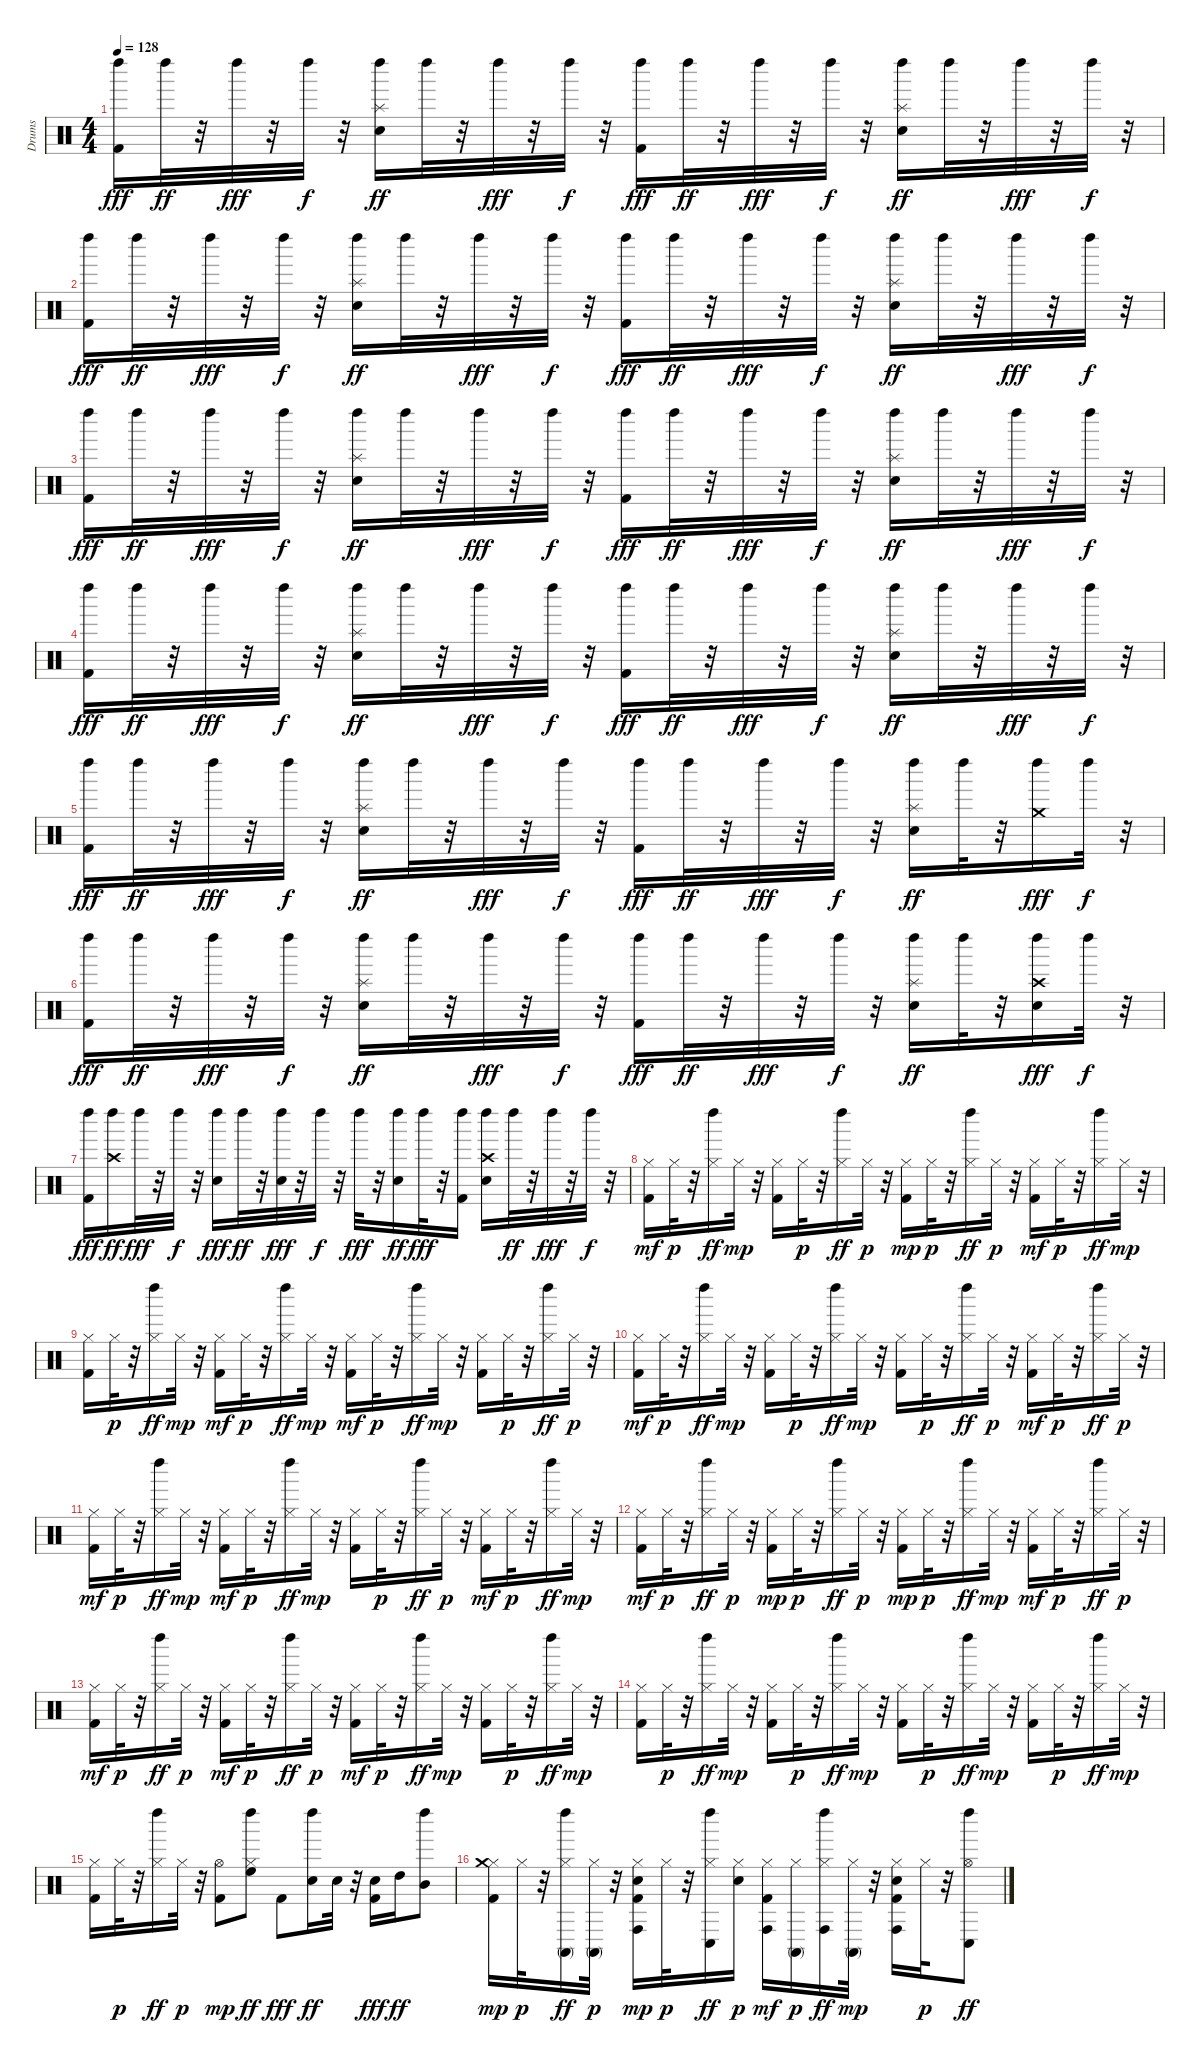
\track ("Drums" "Drums") {instrument percussion}
\staff {score}
\articulation defaults
\ts (4 4)
\tempo 128
\clef neutral
\ks c
("Kick (hit) 2" "Left Maraca (hit)").16{dy fff} "Left Maraca (hit)".32{dy ff} r.32 "Left Maraca (hit)".32{dy fff} r.32 "Left Maraca (hit)".32{dy f} r.32 ("Left Maraca (hit)" "Snare (hit) 2" "Splash (hit)").16{dy ff} "Left Maraca (hit)".32 r.32 "Left Maraca (hit)".32{dy fff} r.32 "Left Maraca (hit)".32{dy f} r.32 ("Kick (hit) 2" "Left Maraca (hit)").16{dy fff} "Left Maraca (hit)".32{dy ff} r.32 "Left Maraca (hit)".32{dy fff} r.32 "Left Maraca (hit)".32{dy f} r.32 ("Left Maraca (hit)" "Snare (hit) 2" "Splash (hit)").16{dy ff} "Left Maraca (hit)".32 r.32 "Left Maraca (hit)".32{dy fff} r.32 "Left Maraca (hit)".32{dy f} r.32 |
("Kick (hit) 2" "Left Maraca (hit)").16{dy fff} "Left Maraca (hit)".32{dy ff} r.32 "Left Maraca (hit)".32{dy fff} r.32 "Left Maraca (hit)".32{dy f} r.32 ("Left Maraca (hit)" "Snare (hit) 2" "Splash (hit)").16{dy ff} "Left Maraca (hit)".32 r.32 "Left Maraca (hit)".32{dy fff} r.32 "Left Maraca (hit)".32{dy f} r.32 ("Kick (hit) 2" "Left Maraca (hit)").16{dy fff} "Left Maraca (hit)".32{dy ff} r.32 "Left Maraca (hit)".32{dy fff} r.32 "Left Maraca (hit)".32{dy f} r.32 ("Left Maraca (hit)" "Snare (hit) 2" "Splash (hit)").16{dy ff} "Left Maraca (hit)".32 r.32 "Left Maraca (hit)".32{dy fff} r.32 "Left Maraca (hit)".32{dy f} r.32 |
("Kick (hit) 2" "Left Maraca (hit)").16{dy fff} "Left Maraca (hit)".32{dy ff} r.32 "Left Maraca (hit)".32{dy fff} r.32 "Left Maraca (hit)".32{dy f} r.32 ("Left Maraca (hit)" "Snare (hit) 2" "Splash (hit)").16{dy ff} "Left Maraca (hit)".32 r.32 "Left Maraca (hit)".32{dy fff} r.32 "Left Maraca (hit)".32{dy f} r.32 ("Kick (hit) 2" "Left Maraca (hit)").16{dy fff} "Left Maraca (hit)".32{dy ff} r.32 "Left Maraca (hit)".32{dy fff} r.32 "Left Maraca (hit)".32{dy f} r.32 ("Left Maraca (hit)" "Snare (hit) 2" "Splash (hit)").16{dy ff} "Left Maraca (hit)".32 r.32 "Left Maraca (hit)".32{dy fff} r.32 "Left Maraca (hit)".32{dy f} r.32 |
("Kick (hit) 2" "Left Maraca (hit)").16{dy fff} "Left Maraca (hit)".32{dy ff} r.32 "Left Maraca (hit)".32{dy fff} r.32 "Left Maraca (hit)".32{dy f} r.32 ("Left Maraca (hit)" "Snare (hit) 2" "Splash (hit)").16{dy ff} "Left Maraca (hit)".32 r.32 "Left Maraca (hit)".32{dy fff} r.32 "Left Maraca (hit)".32{dy f} r.32 ("Kick (hit) 2" "Left Maraca (hit)").16{dy fff} "Left Maraca (hit)".32{dy ff} r.32 "Left Maraca (hit)".32{dy fff} r.32 "Left Maraca (hit)".32{dy f} r.32 ("Left Maraca (hit)" "Snare (hit) 2" "Splash (hit)").16{dy ff} "Left Maraca (hit)".32 r.32 "Left Maraca (hit)".32{dy fff} r.32 "Left Maraca (hit)".32{dy f} r.32 |
("Kick (hit) 2" "Left Maraca (hit)").16{dy fff} "Left Maraca (hit)".32{dy ff} r.32 "Left Maraca (hit)".32{dy fff} r.32 "Left Maraca (hit)".32{dy f} r.32 ("Left Maraca (hit)" "Snare (hit) 2" "Splash (hit)").16{dy ff} "Left Maraca (hit)".32 r.32 "Left Maraca (hit)".32{dy fff} r.32 "Left Maraca (hit)".32{dy f} r.32 ("Kick (hit) 2" "Left Maraca (hit)").16{dy fff} "Left Maraca (hit)".32{dy ff} r.32 "Left Maraca (hit)".32{dy fff} r.32 "Left Maraca (hit)".32{dy f} r.32 ("Left Maraca (hit)" "Snare (hit) 2" "Splash (hit)").16{dy ff} "Left Maraca (hit)".32 r.32 ("Left Maraca (hit)" "Crash medium (hit)").16{dy fff} "Left Maraca (hit)".32{dy f} r.32 |
("Kick (hit) 2" "Left Maraca (hit)").16{dy fff} "Left Maraca (hit)".32{dy ff} r.32 "Left Maraca (hit)".32{dy fff} r.32 "Left Maraca (hit)".32{dy f} r.32 ("Left Maraca (hit)" "Snare (hit) 2" "Splash (hit)").16{dy ff} "Left Maraca (hit)".32 r.32 "Left Maraca (hit)".32{dy fff} r.32 "Left Maraca (hit)".32{dy f} r.32 ("Kick (hit) 2" "Left Maraca (hit)").16{dy fff} "Left Maraca (hit)".32{dy ff} r.32 "Left Maraca (hit)".32{dy fff} r.32 "Left Maraca (hit)".32{dy f} r.32 ("Left Maraca (hit)" "Snare (hit) 2" "Splash (hit)").16{dy ff} "Left Maraca (hit)".32 r.32 ("Left Maraca (hit)" "Snare (hit) 2" "Crash high (hit)").16{dy fff} "Left Maraca (hit)".32{dy f} r.32 |
("Kick (hit) 2" "Left Maraca (hit)").16{dy fff} ("Left Maraca (hit)" "Crash high (hit)").16{dy ff} "Left Maraca (hit)".32{dy fff} r.32 "Left Maraca (hit)".32{dy f} r.32 ("Left Maraca (hit)" "Snare (hit) 2").16{dy fff} "Left Maraca (hit)".32{dy ff} r.32 ("Left Maraca (hit)" "Snare (hit) 2").32{dy fff} r.32 "Left Maraca (hit)".32{dy f} r.32 "Left Maraca (hit)".32{dy fff} r.32 ("Left Maraca (hit)" "Snare (hit) 2").16{dy ff} "Left Maraca (hit)".32{dy fff} r.32 ("Kick (hit) 2" "Left Maraca (hit)").16 ("Left Maraca (hit)" "Snare (hit) 2" "Crash high (hit)").16 "Left Maraca (hit)".32{dy ff} r.32 "Left Maraca (hit)".32{dy fff} r.32 "Left Maraca (hit)".32{dy f} r.32 |
("Kick (hit) 2" "Hi-Hat (closed)").16{dy mf} "Hi-Hat (closed)".32{dy p} r.32 ("Left Maraca (hit)" "Hi-Hat (closed)").16{dy ff} "Hi-Hat (closed)".32{dy mp} r.32 ("Kick (hit) 2" "Hi-Hat (closed)").16 "Hi-Hat (closed)".32{dy p} r.32 ("Left Maraca (hit)" "Hi-Hat (closed)").16{dy ff} "Hi-Hat (closed)".32{dy p} r.32 ("Kick (hit) 2" "Hi-Hat (closed)").16{dy mp} "Hi-Hat (closed)".32{dy p} r.32 ("Left Maraca (hit)" "Hi-Hat (closed)").16{dy ff} "Hi-Hat (closed)".32{dy p} r.32 ("Kick (hit) 2" "Hi-Hat (closed)").16{dy mf} "Hi-Hat (closed)".32{dy p} r.32 ("Left Maraca (hit)" "Hi-Hat (closed)").16{dy ff} "Hi-Hat (closed)".32{dy mp} r.32 |
("Kick (hit) 2" "Hi-Hat (closed)").16 "Hi-Hat (closed)".32{dy p} r.32 ("Left Maraca (hit)" "Hi-Hat (closed)").16{dy ff} "Hi-Hat (closed)".32{dy mp} r.32 ("Kick (hit) 2" "Hi-Hat (closed)").16{dy mf} "Hi-Hat (closed)".32{dy p} r.32 ("Left Maraca (hit)" "Hi-Hat (closed)").16{dy ff} "Hi-Hat (closed)".32{dy mp} r.32 ("Kick (hit) 2" "Hi-Hat (closed)").16{dy mf} "Hi-Hat (closed)".32{dy p} r.32 ("Left Maraca (hit)" "Hi-Hat (closed)").16{dy ff} "Hi-Hat (closed)".32{dy mp} r.32 ("Kick (hit) 2" "Hi-Hat (closed)").16 "Hi-Hat (closed)".32{dy p} r.32 ("Left Maraca (hit)" "Hi-Hat (closed)").16{dy ff} "Hi-Hat (closed)".32{dy p} r.32 |
("Kick (hit) 2" "Hi-Hat (closed)").16{dy mf} "Hi-Hat (closed)".32{dy p} r.32 ("Left Maraca (hit)" "Hi-Hat (closed)").16{dy ff} "Hi-Hat (closed)".32{dy mp} r.32 ("Kick (hit) 2" "Hi-Hat (closed)").16 "Hi-Hat (closed)".32{dy p} r.32 ("Left Maraca (hit)" "Hi-Hat (closed)").16{dy ff} "Hi-Hat (closed)".32{dy mp} r.32 ("Kick (hit) 2" "Hi-Hat (closed)").16 "Hi-Hat (closed)".32{dy p} r.32 ("Left Maraca (hit)" "Hi-Hat (closed)").16{dy ff} "Hi-Hat (closed)".32{dy p} r.32 ("Kick (hit) 2" "Hi-Hat (closed)").16{dy mf} "Hi-Hat (closed)".32{dy p} r.32 ("Left Maraca (hit)" "Hi-Hat (closed)").16{dy ff} "Hi-Hat (closed)".32{dy p} r.32 |
("Kick (hit) 2" "Hi-Hat (closed)").16{dy mf} "Hi-Hat (closed)".32{dy p} r.32 ("Left Maraca (hit)" "Hi-Hat (closed)").16{dy ff} "Hi-Hat (closed)".32{dy mp} r.32 ("Kick (hit) 2" "Hi-Hat (closed)").16{dy mf} "Hi-Hat (closed)".32{dy p} r.32 ("Left Maraca (hit)" "Hi-Hat (closed)").16{dy ff} "Hi-Hat (closed)".32{dy mp} r.32 ("Kick (hit) 2" "Hi-Hat (closed)").16 "Hi-Hat (closed)".32{dy p} r.32 ("Left Maraca (hit)" "Hi-Hat (closed)").16{dy ff} "Hi-Hat (closed)".32{dy p} r.32 ("Kick (hit) 2" "Hi-Hat (closed)").16{dy mf} "Hi-Hat (closed)".32{dy p} r.32 ("Left Maraca (hit)" "Hi-Hat (closed)").16{dy ff} "Hi-Hat (closed)".32{dy mp} r.32 |
("Kick (hit) 2" "Hi-Hat (closed)").16{dy mf} "Hi-Hat (closed)".32{dy p} r.32 ("Left Maraca (hit)" "Hi-Hat (closed)").16{dy ff} "Hi-Hat (closed)".32{dy p} r.32 ("Kick (hit) 2" "Hi-Hat (closed)").16{dy mp} "Hi-Hat (closed)".32{dy p} r.32 ("Left Maraca (hit)" "Hi-Hat (closed)").16{dy ff} "Hi-Hat (closed)".32{dy p} r.32 ("Kick (hit) 2" "Hi-Hat (closed)").16{dy mp} "Hi-Hat (closed)".32{dy p} r.32 ("Left Maraca (hit)" "Hi-Hat (closed)").16{dy ff} "Hi-Hat (closed)".32{dy mp} r.32 ("Kick (hit) 2" "Hi-Hat (closed)").16{dy mf} "Hi-Hat (closed)".32{dy p} r.32 ("Left Maraca (hit)" "Hi-Hat (closed)").16{dy ff} "Hi-Hat (closed)".32{dy p} r.32 |
("Kick (hit) 2" "Hi-Hat (closed)").16{dy mf} "Hi-Hat (closed)".32{dy p} r.32 ("Left Maraca (hit)" "Hi-Hat (closed)").16{dy ff} "Hi-Hat (closed)".32{dy p} r.32 ("Kick (hit) 2" "Hi-Hat (closed)").16{dy mf} "Hi-Hat (closed)".32{dy p} r.32 ("Left Maraca (hit)" "Hi-Hat (closed)").16{dy ff} "Hi-Hat (closed)".32{dy p} r.32 ("Kick (hit) 2" "Hi-Hat (closed)").16{dy mf} "Hi-Hat (closed)".32{dy p} r.32 ("Left Maraca (hit)" "Hi-Hat (closed)").16{dy ff} "Hi-Hat (closed)".32{dy mp} r.32 ("Kick (hit) 2" "Hi-Hat (closed)").16 "Hi-Hat (closed)".32{dy p} r.32 ("Left Maraca (hit)" "Hi-Hat (closed)").16{dy ff} "Hi-Hat (closed)".32{dy mp} r.32 |
("Kick (hit) 2" "Hi-Hat (closed)").16 "Hi-Hat (closed)".32{dy p} r.32 ("Left Maraca (hit)" "Hi-Hat (closed)").16{dy ff} "Hi-Hat (closed)".32{dy mp} r.32 ("Kick (hit) 2" "Hi-Hat (closed)").16 "Hi-Hat (closed)".32{dy p} r.32 ("Left Maraca (hit)" "Hi-Hat (closed)").16{dy ff} "Hi-Hat (closed)".32{dy mp} r.32 ("Kick (hit) 2" "Hi-Hat (closed)").16 "Hi-Hat (closed)".32{dy p} r.32 ("Left Maraca (hit)" "Hi-Hat (closed)").16{dy ff} "Hi-Hat (closed)".32{dy mp} r.32 ("Kick (hit) 2" "Hi-Hat (closed)").16 "Hi-Hat (closed)".32{dy p} r.32 ("Left Maraca (hit)" "Hi-Hat (closed)").16{dy ff} "Hi-Hat (closed)".32{dy mp} r.32 |
("Kick (hit) 2" "Hi-Hat (closed)").16 "Hi-Hat (closed)".32{dy p} r.32 ("Left Maraca (hit)" "Hi-Hat (closed)").16{dy ff} "Hi-Hat (closed)".32{dy p} r.32 ("Kick (hit) 2" "Hi-Hat (open)").8{dy mp} ("Left Maraca (hit)" "High Floor Tom (hit)" "Hi-Hat (closed)").8{dy ff} "Kick (hit) 2".8{dy fff} ("Left Maraca (hit)" "Electric Snare (hit)").16{dy ff} "Electric Snare (hit)".32 r.32 ("Kick (hit) 2" "Electric Snare (hit)").16{dy fff} "High Tom (hit)".16{dy ff} ("Left Maraca (hit)" "Mid Tom (hit)").8 |
("Kick (hit) 2" "Hi-Hat (closed)" "Crash medium (hit)").16{dy mp} "Hi-Hat (closed)".32{dy p} r.32 ("Conga high (mute)" "Left Maraca (hit)" "Hi-Hat (closed)").16{dy ff} ("Conga high (mute)" "Hi-Hat (closed)").32{dy p} r.32 ("Kick (hit) 2" "Conga high (hit)" "Electric Snare (hit)" "Hi-Hat (closed)").16{dy mp} "Hi-Hat (closed)".32{dy p} r.32 ("Conga low (hit)" "Left Maraca (hit)" "Hi-Hat (closed)").16{dy ff} ("Electric Snare (hit)" "Hi-Hat (closed)").16{dy p} ("Kick (hit) 2" "Conga high (hit)" "Hi-Hat (closed)").16{dy mf} ("Conga high (mute)" "Hi-Hat (closed)").16{dy p} ("Conga high (hit)" "Left Maraca (hit)" "Hi-Hat (closed)").16{dy ff} ("Conga high (mute)" "Hi-Hat (closed)").32{dy mp} r.32 ("Kick (hit) 2" "Conga high (hit)" "Electric Snare (hit)" "Hi-Hat (closed)").16 "Hi-Hat (closed)".32{dy p} r.32 ("Conga low (hit)" "Left Maraca (hit)" "Hi-Hat (open)").8{dy ff}
